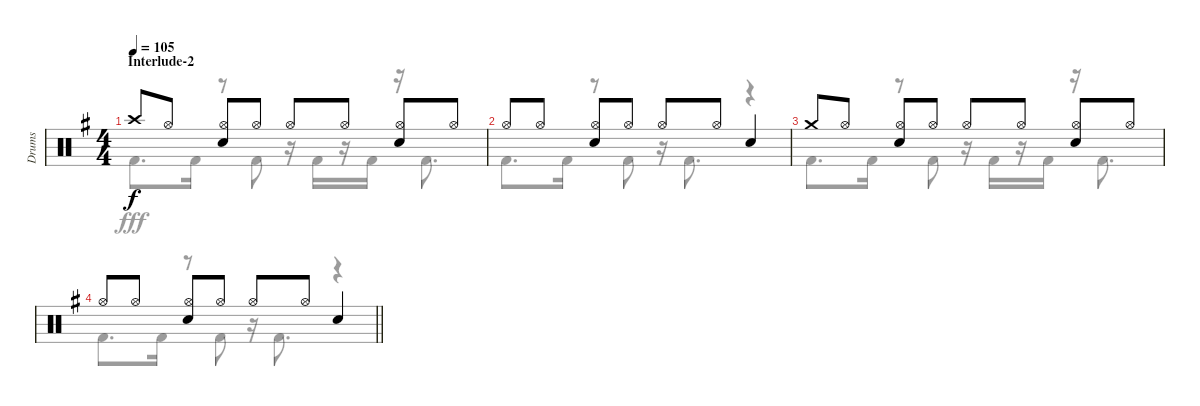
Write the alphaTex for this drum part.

\track ("Drums" "Drums") {instrument percussion}
\staff {score}
\articulation defaults
\voice
\ts (4 4)
\section ("" "Interlude-2")
\tempo 105
\clef neutral
\ks g "Crash high (hit)".8{dy f} "Hi-Hat (open)".8
("Hi-Hat (open)" "Snare (hit) 2").8 "Hi-Hat (open)".8 "Hi-Hat (open)".8 "Hi-Hat (open)".8 ("Hi-Hat (open)" "Snare (hit) 2").8 "Hi-Hat (open)".8 |
"Hi-Hat (open)".8 "Hi-Hat (open)".8 ("Hi-Hat (open)" "Snare (hit) 2").8 "Hi-Hat (open)".8 "Hi-Hat (open)".8 "Hi-Hat (open)".8 "Snare (hit) 2".4 |
"Crash medium (hit)".8 "Hi-Hat (open)".8 ("Hi-Hat (open)" "Snare (hit) 2").8 "Hi-Hat (open)".8 "Hi-Hat (open)".8 "Hi-Hat (open)".8 ("Hi-Hat (open)" "Snare (hit) 2").8 "Hi-Hat (open)".8 |
\barLineRight lightlight "Hi-Hat (open)".8 "Hi-Hat (open)".8
("Hi-Hat (open)" "Snare (hit) 2").8 "Hi-Hat (open)".8 "Hi-Hat (open)".8 "Hi-Hat (open)".8 "Snare (hit) 2".4
\voice
\clef neutral
\ottava regular
\simile none
\ks g "Kick (hit) 2".8{d dy fff} "Kick (hit) 2".16
r.8 "Kick (hit) 2".8 r.16 "Kick (hit) 2".16 r.16 "Kick (hit) 2".16 r.16 "Kick (hit) 2".8{d} |
"Kick (hit) 2".8{d} "Kick (hit) 2".16 r.8 "Kick (hit) 2".8 r.16 "Kick (hit) 2".8{d} r.4 |
"Kick (hit) 2".8{d} "Kick (hit) 2".16 r.8 "Kick (hit) 2".8 r.16 "Kick (hit) 2".16 r.16 "Kick (hit) 2".16 r.16 "Kick (hit) 2".8{d} |
\barLineRight lightlight "Kick (hit) 2".8{d} "Kick (hit) 2".16
r.8 "Kick (hit) 2".8 r.16 "Kick (hit) 2".8{d} r.4
